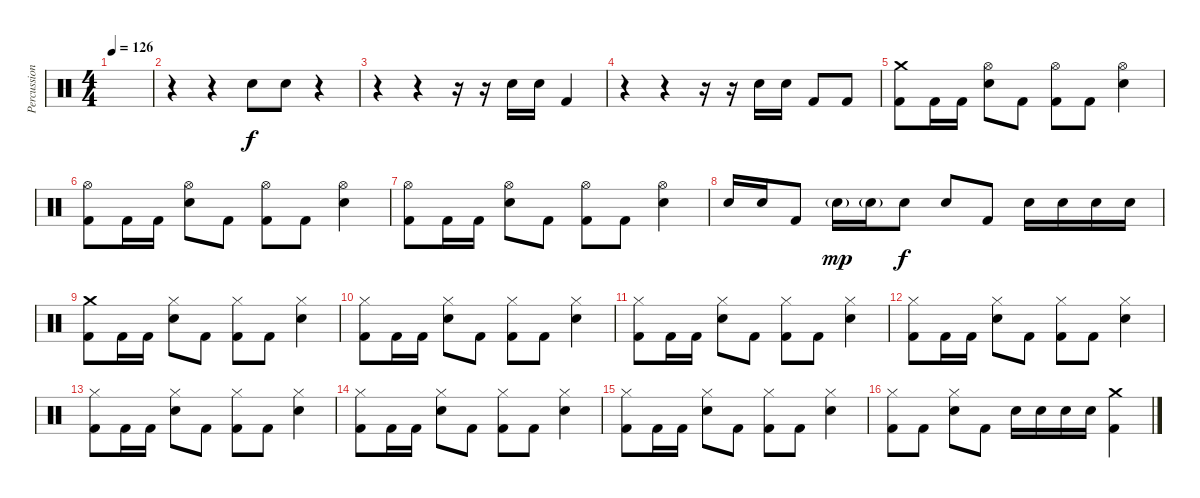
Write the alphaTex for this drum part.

\track ("Percussion" "Percussion") {instrument percussion}
\staff {score}
\articulation defaults
\ts (4 4)
\tempo 126
\clef neutral
\ks c
|
r.4 r.4 "Electric Snare (hit)".8 "Electric Snare (hit)".8 r.4 |
r.4 r.4 r.16 r.16 "Electric Snare (hit)".16 "Electric Snare (hit)".16 "Kick (hit) 2".4 |
r.4 r.4 r.16 r.16 "Electric Snare (hit)".16 "Electric Snare (hit)".16 "Kick (hit) 2".8 "Kick (hit) 2".8 |
("Crash medium (hit)" "Kick (hit) 2").8 "Kick (hit) 2".16 "Kick (hit) 2".16 ("Hi-Hat (open)" "Electric Snare (hit)").8 "Kick (hit) 2".8 ("Hi-Hat (open)" "Kick (hit) 2").8 "Kick (hit) 2".8 ("Hi-Hat (open)" "Electric Snare (hit)").4 |
("Hi-Hat (open)" "Kick (hit) 2").8 "Kick (hit) 2".16 "Kick (hit) 2".16 ("Hi-Hat (open)" "Electric Snare (hit)").8 "Kick (hit) 2".8 ("Hi-Hat (open)" "Kick (hit) 2").8 "Kick (hit) 2".8 ("Hi-Hat (open)" "Electric Snare (hit)").4 |
("Hi-Hat (open)" "Kick (hit) 2").8 "Kick (hit) 2".16 "Kick (hit) 2".16 ("Hi-Hat (open)" "Electric Snare (hit)").8 "Kick (hit) 2".8 ("Hi-Hat (open)" "Kick (hit) 2").8 "Kick (hit) 2".8 ("Hi-Hat (open)" "Electric Snare (hit)").4 |
"Electric Snare (hit)".16 "Electric Snare (hit)".16 "Kick (hit) 2".8 "Electric Snare (hit)"{g}.16{dy mp} "Electric Snare (hit)"{g}.16 "Electric Snare (hit)".8{dy f} "Electric Snare (hit)".8 "Kick (hit) 2".8 "Electric Snare (hit)".16 "Electric Snare (hit)".16 "Electric Snare (hit)".16 "Electric Snare (hit)".16 |
("Crash medium (hit)" "Kick (hit) 2").8 "Kick (hit) 2".16 "Kick (hit) 2".16 ("Hi-Hat (closed)" "Electric Snare (hit)").8 "Kick (hit) 2".8 ("Hi-Hat (closed)" "Kick (hit) 2").8 "Kick (hit) 2".8 ("Hi-Hat (closed)" "Electric Snare (hit)").4 |
("Hi-Hat (closed)" "Kick (hit) 2").8 "Kick (hit) 2".16 "Kick (hit) 2".16 ("Hi-Hat (closed)" "Electric Snare (hit)").8 "Kick (hit) 2".8 ("Hi-Hat (closed)" "Kick (hit) 2").8 "Kick (hit) 2".8 ("Hi-Hat (closed)" "Electric Snare (hit)").4 |
("Hi-Hat (closed)" "Kick (hit) 2").8 "Kick (hit) 2".16 "Kick (hit) 2".16 ("Hi-Hat (closed)" "Electric Snare (hit)").8 "Kick (hit) 2".8 ("Hi-Hat (closed)" "Kick (hit) 2").8 "Kick (hit) 2".8 ("Hi-Hat (closed)" "Electric Snare (hit)").4 |
("Hi-Hat (closed)" "Kick (hit) 2").8 "Kick (hit) 2".16 "Kick (hit) 2".16 ("Hi-Hat (closed)" "Electric Snare (hit)").8 "Kick (hit) 2".8 ("Hi-Hat (closed)" "Kick (hit) 2").8 "Kick (hit) 2".8 ("Hi-Hat (closed)" "Electric Snare (hit)").4 |
("Hi-Hat (closed)" "Kick (hit) 2").8 "Kick (hit) 2".16 "Kick (hit) 2".16 ("Hi-Hat (closed)" "Electric Snare (hit)").8 "Kick (hit) 2".8 ("Hi-Hat (closed)" "Kick (hit) 2").8 "Kick (hit) 2".8 ("Hi-Hat (closed)" "Electric Snare (hit)").4 |
("Hi-Hat (closed)" "Kick (hit) 2").8 "Kick (hit) 2".16 "Kick (hit) 2".16 ("Hi-Hat (closed)" "Electric Snare (hit)").8 "Kick (hit) 2".8 ("Hi-Hat (closed)" "Kick (hit) 2").8 "Kick (hit) 2".8 ("Hi-Hat (closed)" "Electric Snare (hit)").4 |
("Hi-Hat (closed)" "Kick (hit) 2").8 "Kick (hit) 2".16 "Kick (hit) 2".16 ("Hi-Hat (closed)" "Electric Snare (hit)").8 "Kick (hit) 2".8 ("Hi-Hat (closed)" "Kick (hit) 2").8 "Kick (hit) 2".8 ("Hi-Hat (closed)" "Electric Snare (hit)").4 |
("Hi-Hat (closed)" "Kick (hit) 2").8 "Kick (hit) 2".8 ("Hi-Hat (closed)" "Electric Snare (hit)").8 "Kick (hit) 2".8 "Electric Snare (hit)".16 "Electric Snare (hit)".16 "Electric Snare (hit)".16 "Electric Snare (hit)".16 ("Crash medium (hit)" "Kick (hit) 2").4
